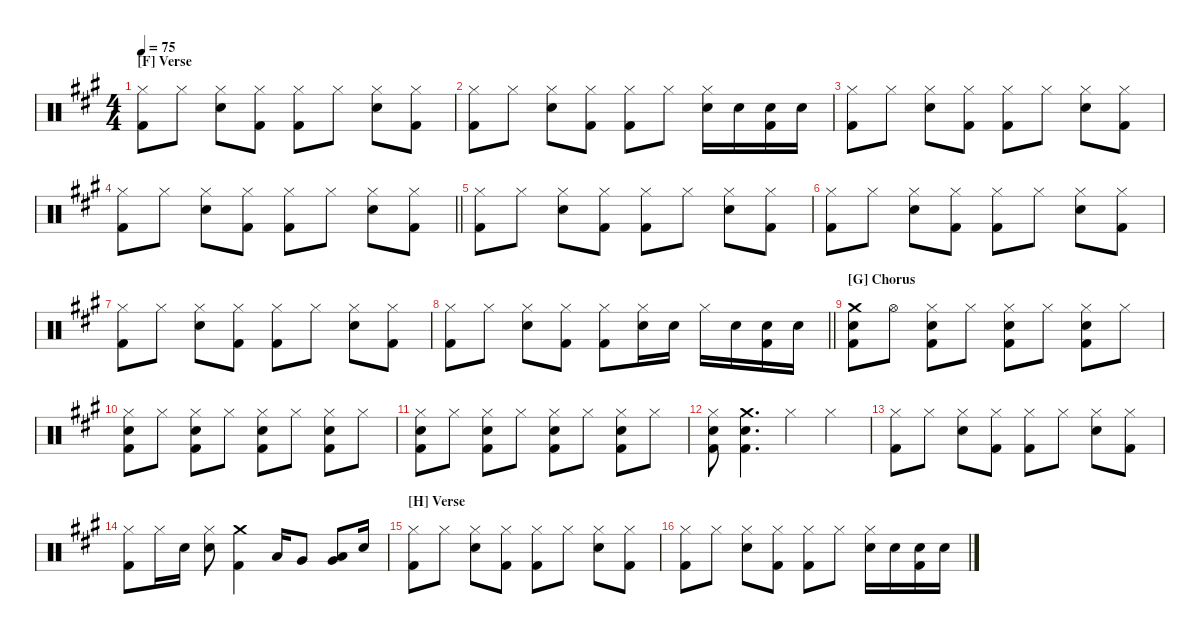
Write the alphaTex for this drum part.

\hideDynamics
\bracketExtendMode nobrackets
\singleTrackTrackNamePolicy hidden
\multiTrackTrackNamePolicy hidden
\otherSystemsTrackNameOrientation horizontal
\track ("Drumkit" "Drums") {instrument percussion}
\staff {score}
\articulation defaults
\ts (4 4)
\section ("F" "Verse")
\tempo 75
\clef neutral
\ks a
("Hi-Hat (closed)"{acc forcenatural} "Kick (hit) 2"{acc forcenatural}).8{dy mf beam Down} "Hi-Hat (closed)"{acc forcenatural}.8{beam Down} ("Hi-Hat (closed)"{acc forcenatural} "Snare (hit) 2"{acc forcenatural}).8{beam Down} ("Hi-Hat (closed)"{acc forcenatural} "Kick (hit) 2"{acc forcenatural}).8{beam Down} ("Hi-Hat (closed)"{acc forcenatural} "Kick (hit) 2"{acc forcenatural}).8{beam Down} "Hi-Hat (closed)"{acc forcenatural}.8{beam Down} ("Hi-Hat (closed)"{acc forcenatural} "Snare (hit) 2"{acc forcenatural}).8{beam Down} ("Hi-Hat (closed)"{acc forcenatural} "Kick (hit) 2"{acc forcenatural}).8{beam Down} |
("Kick (hit) 2"{acc forcenatural} "Hi-Hat (closed)"{acc forcenatural}).8{beam Down} "Hi-Hat (closed)"{acc forcenatural}.8{beam Down} ("Snare (hit) 2"{acc forcenatural} "Hi-Hat (closed)"{acc forcenatural}).8{beam Down} ("Kick (hit) 2"{acc forcenatural} "Hi-Hat (closed)"{acc forcenatural}).8{beam Down} ("Kick (hit) 2"{acc forcenatural} "Hi-Hat (closed)"{acc forcenatural}).8{beam Down} "Hi-Hat (closed)"{acc forcenatural}.8{beam Down} ("Snare (hit) 2"{acc forcenatural} "Hi-Hat (closed)"{acc forcenatural}).16{beam Down} "Snare (hit) 2"{acc forcenatural}.16{beam Down} ("Snare (hit) 2"{acc forcenatural} "Kick (hit) 2"{acc forcenatural}).16{beam Down} "Snare (hit) 2"{acc forcenatural}.16{beam Down} |
("Hi-Hat (closed)"{acc forcenatural} "Kick (hit) 2"{acc forcenatural}).8{beam Down} "Hi-Hat (closed)"{acc forcenatural}.8{beam Down} ("Hi-Hat (closed)"{acc forcenatural} "Snare (hit) 2"{acc forcenatural}).8{beam Down} ("Hi-Hat (closed)"{acc forcenatural} "Kick (hit) 2"{acc forcenatural}).8{beam Down} ("Hi-Hat (closed)"{acc forcenatural} "Kick (hit) 2"{acc forcenatural}).8{beam Down} "Hi-Hat (closed)"{acc forcenatural}.8{beam Down} ("Hi-Hat (closed)"{acc forcenatural} "Snare (hit) 2"{acc forcenatural}).8{beam Down} ("Hi-Hat (closed)"{acc forcenatural} "Kick (hit) 2"{acc forcenatural}).8{beam Down} |
\barLineRight lightlight
("Hi-Hat (closed)"{acc forcenatural} "Kick (hit) 2"{acc forcenatural}).8{beam Down} "Hi-Hat (closed)"{acc forcenatural}.8{beam Down} ("Hi-Hat (closed)"{acc forcenatural} "Snare (hit) 2"{acc forcenatural}).8{beam Down} ("Hi-Hat (closed)"{acc forcenatural} "Kick (hit) 2"{acc forcenatural}).8{beam Down} ("Hi-Hat (closed)"{acc forcenatural} "Kick (hit) 2"{acc forcenatural}).8{beam Down} "Hi-Hat (closed)"{acc forcenatural}.8{beam Down} ("Hi-Hat (closed)"{acc forcenatural} "Snare (hit) 2"{acc forcenatural}).8{beam Down} ("Hi-Hat (closed)"{acc forcenatural} "Kick (hit) 2"{acc forcenatural}).8{beam Down} |
("Hi-Hat (closed)"{acc forcenatural} "Kick (hit) 2"{acc forcenatural}).8{beam Down} "Hi-Hat (closed)"{acc forcenatural}.8{beam Down} ("Hi-Hat (closed)"{acc forcenatural} "Snare (hit) 2"{acc forcenatural}).8{beam Down} ("Hi-Hat (closed)"{acc forcenatural} "Kick (hit) 2"{acc forcenatural}).8{beam Down} ("Hi-Hat (closed)"{acc forcenatural} "Kick (hit) 2"{acc forcenatural}).8{beam Down} "Hi-Hat (closed)"{acc forcenatural}.8{beam Down} ("Hi-Hat (closed)"{acc forcenatural} "Snare (hit) 2"{acc forcenatural}).8{beam Down} ("Hi-Hat (closed)"{acc forcenatural} "Kick (hit) 2"{acc forcenatural}).8{beam Down} |
("Hi-Hat (closed)"{acc forcenatural} "Kick (hit) 2"{acc forcenatural}).8{beam Down} "Hi-Hat (closed)"{acc forcenatural}.8{beam Down} ("Hi-Hat (closed)"{acc forcenatural} "Snare (hit) 2"{acc forcenatural}).8{beam Down} ("Hi-Hat (closed)"{acc forcenatural} "Kick (hit) 2"{acc forcenatural}).8{beam Down} ("Hi-Hat (closed)"{acc forcenatural} "Kick (hit) 2"{acc forcenatural}).8{beam Down} "Hi-Hat (closed)"{acc forcenatural}.8{beam Down} ("Hi-Hat (closed)"{acc forcenatural} "Snare (hit) 2"{acc forcenatural}).8{beam Down} ("Hi-Hat (closed)"{acc forcenatural} "Kick (hit) 2"{acc forcenatural}).8{beam Down} |
("Hi-Hat (closed)"{acc forcenatural} "Kick (hit) 2"{acc forcenatural}).8{beam Down} "Hi-Hat (closed)"{acc forcenatural}.8{beam Down} ("Hi-Hat (closed)"{acc forcenatural} "Snare (hit) 2"{acc forcenatural}).8{beam Down} ("Hi-Hat (closed)"{acc forcenatural} "Kick (hit) 2"{acc forcenatural}).8{beam Down} ("Hi-Hat (closed)"{acc forcenatural} "Kick (hit) 2"{acc forcenatural}).8{beam Down} "Hi-Hat (closed)"{acc forcenatural}.8{beam Down} ("Hi-Hat (closed)"{acc forcenatural} "Snare (hit) 2"{acc forcenatural}).8{beam Down} ("Hi-Hat (closed)"{acc forcenatural} "Kick (hit) 2"{acc forcenatural}).8{beam Down} |
\barLineRight lightlight
("Kick (hit) 2"{acc forcenatural} "Hi-Hat (closed)"{acc forcenatural}).8{beam Down} "Hi-Hat (closed)"{acc forcenatural}.8{beam Down} ("Snare (hit) 2"{acc forcenatural} "Hi-Hat (closed)"{acc forcenatural}).8{beam Down} ("Kick (hit) 2"{acc forcenatural} "Hi-Hat (closed)"{acc forcenatural}).8{beam Down} ("Kick (hit) 2"{acc forcenatural} "Hi-Hat (closed)"{acc forcenatural}).8{beam Down} ("Snare (hit) 2"{acc forcenatural} "Hi-Hat (closed)"{acc forcenatural}).16{beam Down} "Snare (hit) 2"{acc forcenatural}.16{beam Down} "Hi-Hat (closed)"{acc forcenatural}.16{beam Down} "Snare (hit) 2"{acc forcenatural}.16{beam Down} ("Snare (hit) 2"{acc forcenatural} "Kick (hit) 2"{acc forcenatural}).16{beam Down} "Snare (hit) 2"{acc forcenatural}.16{beam Down} |
\section ("G" "Chorus")
("Snare (hit) 2"{acc forcenatural} "Crash medium (hit)"{acc forcenatural} "Kick (hit) 2"{acc forcenatural}).8{beam Down} "Hi-Hat (open)"{acc forcenatural}.8{beam Down} ("Kick (hit) 2"{acc forcenatural} "Hi-Hat (closed)"{acc forcenatural} "Snare (hit) 2"{acc forcenatural}).8{beam Down} "Hi-Hat (closed)"{acc forcenatural}.8{beam Down} ("Kick (hit) 2"{acc forcenatural} "Snare (hit) 2"{acc forcenatural} "Hi-Hat (closed)"{acc forcenatural}).8{beam Down} "Hi-Hat (closed)"{acc forcenatural}.8{beam Down} ("Kick (hit) 2"{acc forcenatural} "Snare (hit) 2"{acc forcenatural} "Hi-Hat (closed)"{acc forcenatural}).8{beam Down} "Hi-Hat (closed)"{acc forcenatural}.8{beam Down} |
("Hi-Hat (closed)"{acc forcenatural} "Snare (hit) 2"{acc forcenatural} "Kick (hit) 2"{acc forcenatural}).8{beam Down} "Hi-Hat (closed)"{acc forcenatural}.8{beam Down} ("Kick (hit) 2"{acc forcenatural} "Hi-Hat (closed)"{acc forcenatural} "Snare (hit) 2"{acc forcenatural}).8{beam Down} "Hi-Hat (closed)"{acc forcenatural}.8{beam Down} ("Kick (hit) 2"{acc forcenatural} "Snare (hit) 2"{acc forcenatural} "Hi-Hat (closed)"{acc forcenatural}).8{beam Down} "Hi-Hat (closed)"{acc forcenatural}.8{beam Down} ("Kick (hit) 2"{acc forcenatural} "Snare (hit) 2"{acc forcenatural} "Hi-Hat (closed)"{acc forcenatural}).8{beam Down} "Hi-Hat (closed)"{acc forcenatural}.8{beam Down} |
("Hi-Hat (closed)"{acc forcenatural} "Snare (hit) 2"{acc forcenatural} "Kick (hit) 2"{acc forcenatural}).8{beam Down} "Hi-Hat (closed)"{acc forcenatural}.8{beam Down} ("Kick (hit) 2"{acc forcenatural} "Hi-Hat (closed)"{acc forcenatural} "Snare (hit) 2"{acc forcenatural}).8{beam Down} "Hi-Hat (closed)"{acc forcenatural}.8{beam Down} ("Kick (hit) 2"{acc forcenatural} "Snare (hit) 2"{acc forcenatural} "Hi-Hat (closed)"{acc forcenatural}).8{beam Down} "Hi-Hat (closed)"{acc forcenatural}.8{beam Down} ("Kick (hit) 2"{acc forcenatural} "Snare (hit) 2"{acc forcenatural} "Hi-Hat (closed)"{acc forcenatural}).8{beam Down} "Hi-Hat (closed)"{acc forcenatural}.8{beam Down} |
("Hi-Hat (closed)"{acc forcenatural} "Snare (hit) 2"{acc forcenatural} "Kick (hit) 2"{acc forcenatural}).8{beam Down} ("Snare (hit) 2"{acc forcenatural} "Kick (hit) 2"{acc forcenatural} "Crash medium (hit)"{acc forcenatural}).4{d beam Down} "Hi-Hat (closed)"{acc forcenatural}.4{beam Down} "Hi-Hat (closed)"{acc forcenatural}.4{beam Down} |
("Hi-Hat (closed)"{acc forcenatural} "Kick (hit) 2"{acc forcenatural}).8{beam Down} "Hi-Hat (closed)"{acc forcenatural}.8{beam Down} ("Hi-Hat (closed)"{acc forcenatural} "Snare (hit) 2"{acc forcenatural}).8{beam Down} ("Hi-Hat (closed)"{acc forcenatural} "Kick (hit) 2"{acc forcenatural}).8{beam Down} ("Hi-Hat (closed)"{acc forcenatural} "Kick (hit) 2"{acc forcenatural}).8{beam Down} "Hi-Hat (closed)"{acc forcenatural}.8{beam Down} ("Hi-Hat (closed)"{acc forcenatural} "Snare (hit) 2"{acc forcenatural}).8{beam Down} ("Hi-Hat (closed)"{acc forcenatural} "Kick (hit) 2"{acc forcenatural}).8{beam Down} |
("Hi-Hat (closed)"{acc forcenatural} "Kick (hit) 2"{acc forcenatural}).8{beam Down} "Hi-Hat (closed)"{acc forcenatural}.16{beam Down} "Snare (hit) 2"{acc forcenatural}.16{beam Down} ("Hi-Hat (closed)"{acc forcenatural} "Snare (hit) 2"{acc forcenatural}).8{beam Down} ("Crash medium (hit)"{acc forcenatural} "Kick (hit) 2"{acc forcenatural}).4{beam Down} "Low Tom (hit)"{acc forcenatural}.16{beam Up} "Very Low Tom (hit)"{acc forcenatural}.8{beam Up} ("Low Tom (hit)"{acc forcenatural} "Very Low Tom (hit)"{acc forcenatural}).8{beam Up} "Snare (hit) 2"{acc forcenatural}.16{beam Up} |
\section ("H" "Verse")
("Hi-Hat (closed)"{acc forcenatural} "Kick (hit) 2"{acc forcenatural}).8{beam Down} "Hi-Hat (closed)"{acc forcenatural}.8{beam Down} ("Hi-Hat (closed)"{acc forcenatural} "Snare (hit) 2"{acc forcenatural}).8{beam Down} ("Hi-Hat (closed)"{acc forcenatural} "Kick (hit) 2"{acc forcenatural}).8{beam Down} ("Hi-Hat (closed)"{acc forcenatural} "Kick (hit) 2"{acc forcenatural}).8{beam Down} "Hi-Hat (closed)"{acc forcenatural}.8{beam Down} ("Hi-Hat (closed)"{acc forcenatural} "Snare (hit) 2"{acc forcenatural}).8{beam Down} ("Hi-Hat (closed)"{acc forcenatural} "Kick (hit) 2"{acc forcenatural}).8{beam Down} |
("Kick (hit) 2"{acc forcenatural} "Hi-Hat (closed)"{acc forcenatural}).8{beam Down} "Hi-Hat (closed)"{acc forcenatural}.8{beam Down} ("Snare (hit) 2"{acc forcenatural} "Hi-Hat (closed)"{acc forcenatural}).8{beam Down} ("Kick (hit) 2"{acc forcenatural} "Hi-Hat (closed)"{acc forcenatural}).8{beam Down} ("Kick (hit) 2"{acc forcenatural} "Hi-Hat (closed)"{acc forcenatural}).8{beam Down} "Hi-Hat (closed)"{acc forcenatural}.8{beam Down} ("Snare (hit) 2"{acc forcenatural} "Hi-Hat (closed)"{acc forcenatural}).16{beam Down} "Snare (hit) 2"{acc forcenatural}.16{beam Down} ("Snare (hit) 2"{acc forcenatural} "Kick (hit) 2"{acc forcenatural}).16{beam Down} "Snare (hit) 2"{acc forcenatural}.16{beam Down}
